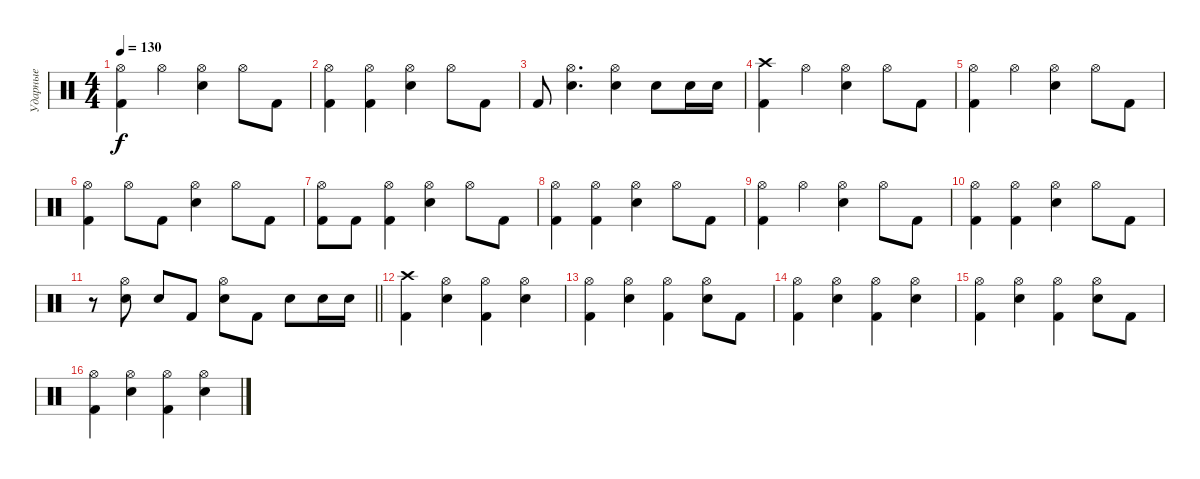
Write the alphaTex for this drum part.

\track ("Ударные" "Ударные") {instrument percussion}
\staff
\articulation defaults
\ts (4 4)
\tempo 130
\clef neutral
\ks c
("Kick (hit) 2" "Hi-Hat (open)").4{dy f} "Hi-Hat (open)".4 ("Snare (hit) 2" "Hi-Hat (open)").4 "Hi-Hat (open)".8 "Kick (hit) 2".8 |
("Kick (hit) 2" "Hi-Hat (open)").4 ("Kick (hit) 2" "Hi-Hat (open)").4 ("Snare (hit) 2" "Hi-Hat (open)").4 "Hi-Hat (open)".8 "Kick (hit) 2".8 |
"Kick (hit) 2".8 ("Snare (hit) 2" "Hi-Hat (open)").4{d} ("Snare (hit) 2" "Hi-Hat (open)").4 "Snare (hit) 2".8 "Snare (hit) 2".16 "Snare (hit) 2".16 |
("Kick (hit) 2" "Crash high (hit)").4 "Hi-Hat (open)".4 ("Snare (hit) 2" "Hi-Hat (open)").4 "Hi-Hat (open)".8 "Kick (hit) 2".8 |
("Kick (hit) 2" "Hi-Hat (open)").4 "Hi-Hat (open)".4 ("Snare (hit) 2" "Hi-Hat (open)").4 "Hi-Hat (open)".8 "Kick (hit) 2".8 |
("Kick (hit) 2" "Hi-Hat (open)").4 "Hi-Hat (open)".8 "Kick (hit) 2".8 ("Snare (hit) 2" "Hi-Hat (open)").4 "Hi-Hat (open)".8 "Kick (hit) 2".8 |
("Kick (hit) 2" "Hi-Hat (open)").8 "Kick (hit) 2".8 ("Kick (hit) 2" "Hi-Hat (open)").4 ("Snare (hit) 2" "Hi-Hat (open)").4 "Hi-Hat (open)".8 "Kick (hit) 2".8 |
("Kick (hit) 2" "Hi-Hat (open)").4 ("Kick (hit) 2" "Hi-Hat (open)").4 ("Snare (hit) 2" "Hi-Hat (open)").4 "Hi-Hat (open)".8 "Kick (hit) 2".8 |
("Kick (hit) 2" "Hi-Hat (open)").4 "Hi-Hat (open)".4 ("Snare (hit) 2" "Hi-Hat (open)").4 "Hi-Hat (open)".8 "Kick (hit) 2".8 |
("Kick (hit) 2" "Hi-Hat (open)").4 ("Kick (hit) 2" "Hi-Hat (open)").4 ("Snare (hit) 2" "Hi-Hat (open)").4 "Hi-Hat (open)".8 "Kick (hit) 2".8 |
\barLineRight lightlight
r.8 ("Snare (hit) 2" "Hi-Hat (open)").8 "Snare (hit) 2".8 "Kick (hit) 2".8 ("Snare (hit) 2" "Hi-Hat (open)").8 "Kick (hit) 2".8 "Snare (hit) 2".8 "Snare (hit) 2".16 "Snare (hit) 2".16 |
("Kick (hit) 2" "Crash high (hit)").4 ("Snare (hit) 2" "Hi-Hat (open)").4 ("Kick (hit) 2" "Hi-Hat (open)").4 ("Snare (hit) 2" "Hi-Hat (open)").4 |
("Kick (hit) 2" "Hi-Hat (open)").4 ("Snare (hit) 2" "Hi-Hat (open)").4 ("Kick (hit) 2" "Hi-Hat (open)").4 ("Snare (hit) 2" "Hi-Hat (open)").8 "Kick (hit) 2".8 |
("Kick (hit) 2" "Hi-Hat (open)").4 ("Snare (hit) 2" "Hi-Hat (open)").4 ("Kick (hit) 2" "Hi-Hat (open)").4 ("Snare (hit) 2" "Hi-Hat (open)").4 |
("Kick (hit) 2" "Hi-Hat (open)").4 ("Snare (hit) 2" "Hi-Hat (open)").4 ("Kick (hit) 2" "Hi-Hat (open)").4 ("Snare (hit) 2" "Hi-Hat (open)").8 "Kick (hit) 2".8 |
("Kick (hit) 2" "Hi-Hat (open)").4 ("Snare (hit) 2" "Hi-Hat (open)").4 ("Kick (hit) 2" "Hi-Hat (open)").4 ("Snare (hit) 2" "Hi-Hat (open)").4
